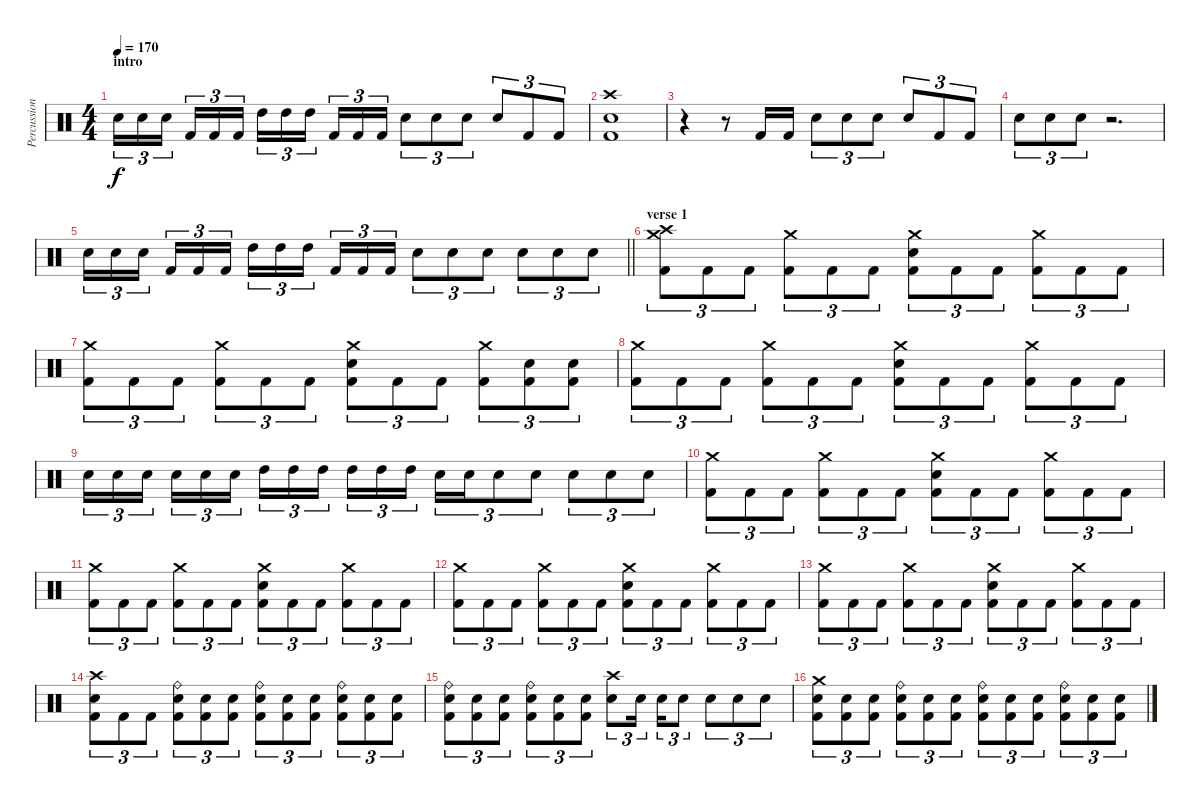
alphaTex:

\track ("Percussion" "Percussion") {instrument percussion}
\staff {score}
\articulation defaults
\ts (4 4)
\section ("" "intro")
\tempo 170
\clef neutral
\ks c "Electric Snare (hit)".16{tu (3 2) dy f} "Electric Snare (hit)".16{tu (3 2)} "Electric Snare (hit)".16{tu (3 2) beam splitsecondary} "Kick (hit) 2".16{tu (3 2)} "Kick (hit) 2".16{tu (3 2)} "Kick (hit) 2".16{tu (3 2)} "High Tom (hit)".16{tu (3 2)} "High Tom (hit)".16{tu (3 2)} "High Tom (hit)".16{tu (3 2) beam splitsecondary} "Kick (hit) 2".16{tu (3 2)} "Kick (hit) 2".16{tu (3 2)} "Kick (hit) 2".16{tu (3 2)} "Electric Snare (hit)".8{tu (3 2)} "Electric Snare (hit)".8{tu (3 2)} "Electric Snare (hit)".8{tu (3 2)} "Electric Snare (hit)".8{tu (3 2)} "Kick (hit) 2".8{tu (3 2)} "Kick (hit) 2".8{tu (3 2)}
|
("Crash high (hit)" "Electric Snare (hit)" "Kick (hit) 2").1 |
r.4 r.8 "Kick (hit) 2".16 "Kick (hit) 2".16 "Electric Snare (hit)".8{tu (3 2)} "Electric Snare (hit)".8{tu (3 2)} "Electric Snare (hit)".8{tu (3 2)} "Electric Snare (hit)".8{tu (3 2)} "Kick (hit) 2".8{tu (3 2)} "Kick (hit) 2".8{tu (3 2)} |
"Electric Snare (hit)".8{tu (3 2)} "Electric Snare (hit)".8{tu (3 2)} "Electric Snare (hit)".8{tu (3 2)} r.2{d} |
\barLineRight lightlight "Electric Snare (hit)".16{tu (3 2)} "Electric Snare (hit)".16{tu (3 2)} "Electric Snare (hit)".16{tu (3 2) beam splitsecondary} "Kick (hit) 2".16{tu (3 2)} "Kick (hit) 2".16{tu (3 2)} "Kick (hit) 2".16{tu (3 2)} "High Tom (hit)".16{tu (3 2)} "High Tom (hit)".16{tu (3 2)} "High Tom (hit)".16{tu (3 2) beam splitsecondary} "Kick (hit) 2".16{tu (3 2)} "Kick (hit) 2".16{tu (3 2)} "Kick (hit) 2".16{tu (3 2)} "Electric Snare (hit)".8{tu (3 2)} "Electric Snare (hit)".8{tu (3 2)} "Electric Snare (hit)".8{tu (3 2)} "Electric Snare (hit)".8{tu (3 2)} "Electric Snare (hit)".8{tu (3 2)} "Electric Snare (hit)".8{tu (3 2)}
|
\section ("" "verse 1")
("Crash high (hit)" "Crash medium (hit)" "Kick (hit) 2").8{tu (3 2)} "Kick (hit) 2".8{tu (3 2)} "Kick (hit) 2".8{tu (3 2)} ("Crash medium (hit)" "Kick (hit) 2").8{tu (3 2)} "Kick (hit) 2".8{tu (3 2)} "Kick (hit) 2".8{tu (3 2)} ("Crash medium (hit)" "Electric Snare (hit)" "Kick (hit) 2").8{tu (3 2)} "Kick (hit) 2".8{tu (3 2)} "Kick (hit) 2".8{tu (3 2)} ("Crash medium (hit)" "Kick (hit) 2").8{tu (3 2)} "Kick (hit) 2".8{tu (3 2)} "Kick (hit) 2".8{tu (3 2)} |
("Crash medium (hit)" "Kick (hit) 2").8{tu (3 2)} "Kick (hit) 2".8{tu (3 2)} "Kick (hit) 2".8{tu (3 2)} ("Crash medium (hit)" "Kick (hit) 2").8{tu (3 2)} "Kick (hit) 2".8{tu (3 2)} "Kick (hit) 2".8{tu (3 2)} ("Crash medium (hit)" "Electric Snare (hit)" "Kick (hit) 2").8{tu (3 2)} "Kick (hit) 2".8{tu (3 2)} "Kick (hit) 2".8{tu (3 2)} ("Crash medium (hit)" "Kick (hit) 2").8{tu (3 2)} ("Electric Snare (hit)" "Kick (hit) 2").8{tu (3 2)} ("Electric Snare (hit)" "Kick (hit) 2").8{tu (3 2)} |
("Crash medium (hit)" "Kick (hit) 2").8{tu (3 2)} "Kick (hit) 2".8{tu (3 2)} "Kick (hit) 2".8{tu (3 2)} ("Crash medium (hit)" "Kick (hit) 2").8{tu (3 2)} "Kick (hit) 2".8{tu (3 2)} "Kick (hit) 2".8{tu (3 2)} ("Crash medium (hit)" "Electric Snare (hit)" "Kick (hit) 2").8{tu (3 2)} "Kick (hit) 2".8{tu (3 2)} "Kick (hit) 2".8{tu (3 2)} ("Crash medium (hit)" "Kick (hit) 2").8{tu (3 2)} "Kick (hit) 2".8{tu (3 2)} "Kick (hit) 2".8{tu (3 2)} |
"Electric Snare (hit)".16{tu (3 2)} "Electric Snare (hit)".16{tu (3 2)} "Electric Snare (hit)".16{tu (3 2) beam splitsecondary} "Electric Snare (hit)".16{tu (3 2)} "Electric Snare (hit)".16{tu (3 2)} "Electric Snare (hit)".16{tu (3 2)} "High Tom (hit)".16{tu (3 2)} "High Tom (hit)".16{tu (3 2)} "High Tom (hit)".16{tu (3 2) beam splitsecondary} "High Tom (hit)".16{tu (3 2)} "High Tom (hit)".16{tu (3 2)} "High Tom (hit)".16{tu (3 2)} "Electric Snare (hit)".16{tu (3 2)} "Electric Snare (hit)".16{tu (3 2)} "Electric Snare (hit)".8{tu (3 2)} "Electric Snare (hit)".8{tu (3 2)} "Electric Snare (hit)".8{tu (3 2)} "Electric Snare (hit)".8{tu (3 2)} "Electric Snare (hit)".8{tu (3 2)} |
("Crash medium (hit)" "Kick (hit) 2").8{tu (3 2)} "Kick (hit) 2".8{tu (3 2)} "Kick (hit) 2".8{tu (3 2)} ("Crash medium (hit)" "Kick (hit) 2").8{tu (3 2)} "Kick (hit) 2".8{tu (3 2)} "Kick (hit) 2".8{tu (3 2)} ("Crash medium (hit)" "Electric Snare (hit)" "Kick (hit) 2").8{tu (3 2)} "Kick (hit) 2".8{tu (3 2)} "Kick (hit) 2".8{tu (3 2)} ("Crash medium (hit)" "Kick (hit) 2").8{tu (3 2)} "Kick (hit) 2".8{tu (3 2)} "Kick (hit) 2".8{tu (3 2)} |
("Crash medium (hit)" "Kick (hit) 2").8{tu (3 2)} "Kick (hit) 2".8{tu (3 2)} "Kick (hit) 2".8{tu (3 2)} ("Crash medium (hit)" "Kick (hit) 2").8{tu (3 2)} "Kick (hit) 2".8{tu (3 2)} "Kick (hit) 2".8{tu (3 2)} ("Crash medium (hit)" "Electric Snare (hit)" "Kick (hit) 2").8{tu (3 2)} "Kick (hit) 2".8{tu (3 2)} "Kick (hit) 2".8{tu (3 2)} ("Crash medium (hit)" "Kick (hit) 2").8{tu (3 2)} "Kick (hit) 2".8{tu (3 2)} "Kick (hit) 2".8{tu (3 2)} |
("Crash medium (hit)" "Kick (hit) 2").8{tu (3 2)} "Kick (hit) 2".8{tu (3 2)} "Kick (hit) 2".8{tu (3 2)} ("Crash medium (hit)" "Kick (hit) 2").8{tu (3 2)} "Kick (hit) 2".8{tu (3 2)} "Kick (hit) 2".8{tu (3 2)} ("Crash medium (hit)" "Electric Snare (hit)" "Kick (hit) 2").8{tu (3 2)} "Kick (hit) 2".8{tu (3 2)} "Kick (hit) 2".8{tu (3 2)} ("Crash medium (hit)" "Kick (hit) 2").8{tu (3 2)} "Kick (hit) 2".8{tu (3 2)} "Kick (hit) 2".8{tu (3 2)} |
("Crash medium (hit)" "Kick (hit) 2").8{tu (3 2)} "Kick (hit) 2".8{tu (3 2)} "Kick (hit) 2".8{tu (3 2)} ("Crash medium (hit)" "Kick (hit) 2").8{tu (3 2)} "Kick (hit) 2".8{tu (3 2)} "Kick (hit) 2".8{tu (3 2)} ("Crash medium (hit)" "Electric Snare (hit)" "Kick (hit) 2").8{tu (3 2)} "Kick (hit) 2".8{tu (3 2)} "Kick (hit) 2".8{tu (3 2)} ("Crash medium (hit)" "Kick (hit) 2").8{tu (3 2)} "Kick (hit) 2".8{tu (3 2)} "Kick (hit) 2".8{tu (3 2)} |
("Crash high (hit)" "Electric Snare (hit)" "Kick (hit) 2").8{tu (3 2)} "Kick (hit) 2".8{tu (3 2)} "Kick (hit) 2".8{tu (3 2)} ("Ride (bell)" "Electric Snare (hit)" "Kick (hit) 2").8{tu (3 2)} ("Electric Snare (hit)" "Kick (hit) 2").8{tu (3 2)} ("Electric Snare (hit)" "Kick (hit) 2").8{tu (3 2)} ("Ride (bell)" "Electric Snare (hit)" "Kick (hit) 2").8{tu (3 2)} ("Electric Snare (hit)" "Kick (hit) 2").8{tu (3 2)} ("Electric Snare (hit)" "Kick (hit) 2").8{tu (3 2)} ("Ride (bell)" "Electric Snare (hit)" "Kick (hit) 2").8{tu (3 2)} ("Electric Snare (hit)" "Kick (hit) 2").8{tu (3 2)} ("Electric Snare (hit)" "Kick (hit) 2").8{tu (3 2)} |
("Ride (bell)" "Electric Snare (hit)" "Kick (hit) 2").8{tu (3 2)} ("Electric Snare (hit)" "Kick (hit) 2").8{tu (3 2)} ("Electric Snare (hit)" "Kick (hit) 2").8{tu (3 2)} ("Ride (bell)" "Electric Snare (hit)" "Kick (hit) 2").8{tu (3 2)} ("Electric Snare (hit)" "Kick (hit) 2").8{tu (3 2)} ("Electric Snare (hit)" "Kick (hit) 2").8{tu (3 2)} ("Crash high (hit)" "Electric Snare (hit)").8{tu (3 2)} "Electric Snare (hit)".16{tu (3 2) beam splitsecondary} "Electric Snare (hit)".16{tu (3 2)} "Electric Snare (hit)".8{tu (3 2)} "Electric Snare (hit)".8{tu (3 2)} "Electric Snare (hit)".8{tu (3 2)} "Electric Snare (hit)".8{tu (3 2)} |
("Crash medium (hit)" "Electric Snare (hit)" "Kick (hit) 2").8{tu (3 2)} ("Electric Snare (hit)" "Kick (hit) 2").8{tu (3 2)} ("Electric Snare (hit)" "Kick (hit) 2").8{tu (3 2)} ("Ride (bell)" "Electric Snare (hit)" "Kick (hit) 2").8{tu (3 2)} ("Electric Snare (hit)" "Kick (hit) 2").8{tu (3 2)} ("Electric Snare (hit)" "Kick (hit) 2").8{tu (3 2)} ("Ride (bell)" "Electric Snare (hit)" "Kick (hit) 2").8{tu (3 2)} ("Electric Snare (hit)" "Kick (hit) 2").8{tu (3 2)} ("Electric Snare (hit)" "Kick (hit) 2").8{tu (3 2)} ("Ride (bell)" "Electric Snare (hit)" "Kick (hit) 2").8{tu (3 2)} ("Electric Snare (hit)" "Kick (hit) 2").8{tu (3 2)} ("Electric Snare (hit)" "Kick (hit) 2").8{tu (3 2)}
